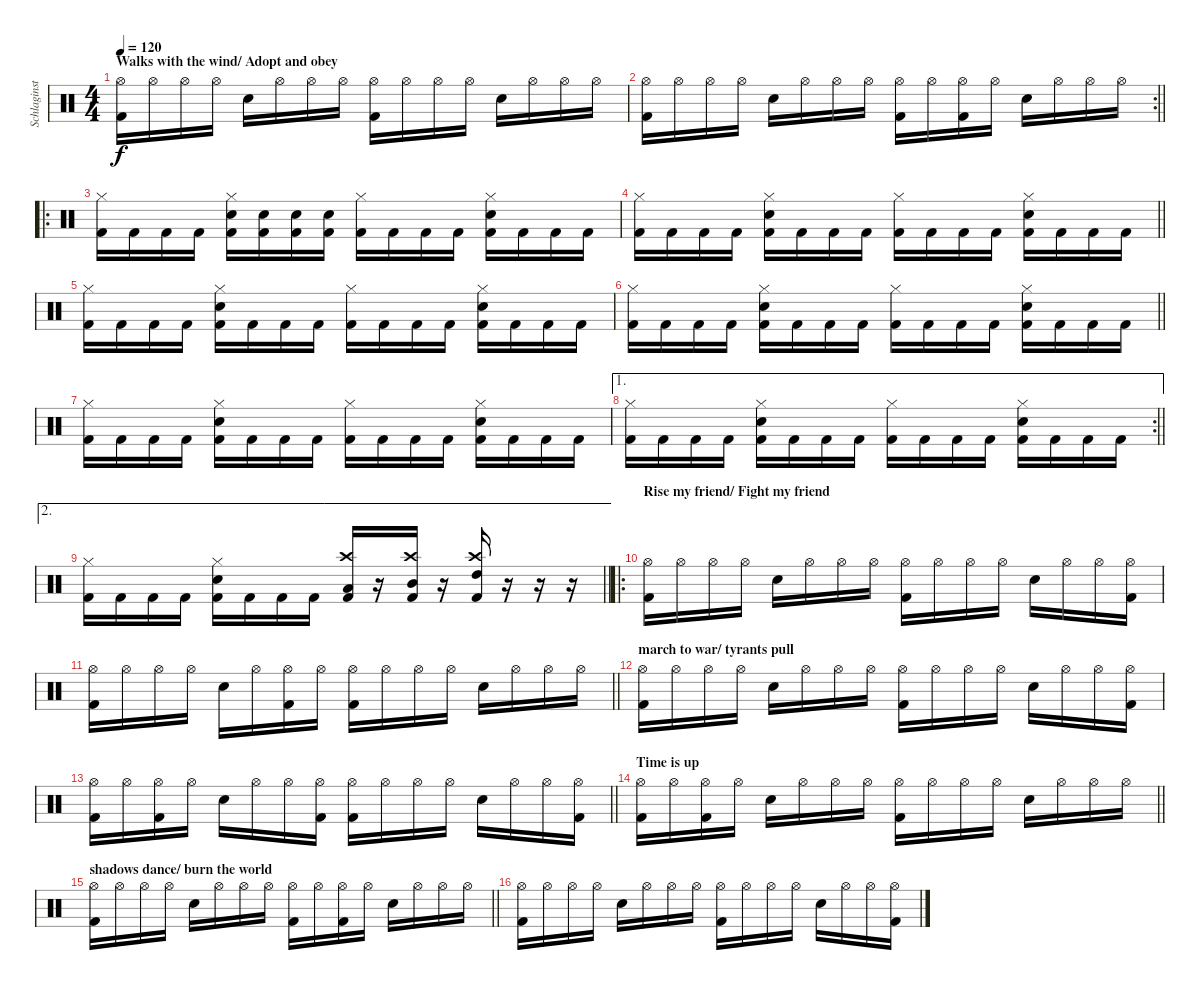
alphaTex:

\track ("Schlaginstrumente - Auswahl" "Schlaginst") {instrument percussion}
\staff {score}
\articulation defaults
\ts (4 4)
\section ("" "Walks with the wind/ Adopt and obey")
\tempo 120
\clef neutral
\ks c
("Hi-Hat (open)" "Kick (hit) 2").16{dy f} "Hi-Hat (open)".16 "Hi-Hat (open)".16 "Hi-Hat (open)".16 "Electric Snare (hit)".16 "Hi-Hat (open)".16 "Hi-Hat (open)".16 "Hi-Hat (open)".16 ("Hi-Hat (open)" "Kick (hit) 2").16 "Hi-Hat (open)".16 "Hi-Hat (open)".16 "Hi-Hat (open)".16 "Electric Snare (hit)".16 "Hi-Hat (open)".16 "Hi-Hat (open)".16 "Hi-Hat (open)".16 |
\rc 2
\barLineRight lightlight
("Hi-Hat (open)" "Kick (hit) 2").16 "Hi-Hat (open)".16 "Hi-Hat (open)".16 "Hi-Hat (open)".16 "Electric Snare (hit)".16 "Hi-Hat (open)".16 "Hi-Hat (open)".16 "Hi-Hat (open)".16 ("Hi-Hat (open)" "Kick (hit) 2").16 "Hi-Hat (open)".16 ("Hi-Hat (open)" "Kick (hit) 2").16 "Hi-Hat (open)".16 "Electric Snare (hit)".16 "Hi-Hat (open)".16 "Hi-Hat (open)".16 "Hi-Hat (open)".16 |
\ro
("Hi-Hat (closed)" "Kick (hit) 2").16 "Kick (hit) 2".16 "Kick (hit) 2".16 "Kick (hit) 2".16 ("Hi-Hat (closed)" "Electric Snare (hit)" "Kick (hit) 2").16 ("Electric Snare (hit)" "Kick (hit) 2").16 ("Electric Snare (hit)" "Kick (hit) 2").16 ("Electric Snare (hit)" "Kick (hit) 2").16 ("Hi-Hat (closed)" "Kick (hit) 2").16 "Kick (hit) 2".16 "Kick (hit) 2".16 "Kick (hit) 2".16 ("Hi-Hat (closed)" "Electric Snare (hit)" "Kick (hit) 2").16 "Kick (hit) 2".16 "Kick (hit) 2".16 "Kick (hit) 2".16 |
\barLineRight lightlight
("Hi-Hat (closed)" "Kick (hit) 2").16 "Kick (hit) 2".16 "Kick (hit) 2".16 "Kick (hit) 2".16 ("Hi-Hat (closed)" "Electric Snare (hit)" "Kick (hit) 2").16 "Kick (hit) 2".16 "Kick (hit) 2".16 "Kick (hit) 2".16 ("Hi-Hat (closed)" "Kick (hit) 2").16 "Kick (hit) 2".16 "Kick (hit) 2".16 "Kick (hit) 2".16 ("Hi-Hat (closed)" "Electric Snare (hit)" "Kick (hit) 2").16 "Kick (hit) 2".16 "Kick (hit) 2".16 "Kick (hit) 2".16 |
("Hi-Hat (closed)" "Kick (hit) 2").16 "Kick (hit) 2".16 "Kick (hit) 2".16 "Kick (hit) 2".16 ("Hi-Hat (closed)" "Electric Snare (hit)" "Kick (hit) 2").16 "Kick (hit) 2".16 "Kick (hit) 2".16 "Kick (hit) 2".16 ("Hi-Hat (closed)" "Kick (hit) 2").16 "Kick (hit) 2".16 "Kick (hit) 2".16 "Kick (hit) 2".16 ("Hi-Hat (closed)" "Electric Snare (hit)" "Kick (hit) 2").16 "Kick (hit) 2".16 "Kick (hit) 2".16 "Kick (hit) 2".16 |
\barLineRight lightlight
("Hi-Hat (closed)" "Kick (hit) 2").16 "Kick (hit) 2".16 "Kick (hit) 2".16 "Kick (hit) 2".16 ("Hi-Hat (closed)" "Electric Snare (hit)" "Kick (hit) 2").16 "Kick (hit) 2".16 "Kick (hit) 2".16 "Kick (hit) 2".16 ("Hi-Hat (closed)" "Kick (hit) 2").16 "Kick (hit) 2".16 "Kick (hit) 2".16 "Kick (hit) 2".16 ("Hi-Hat (closed)" "Electric Snare (hit)" "Kick (hit) 2").16 "Kick (hit) 2".16 "Kick (hit) 2".16 "Kick (hit) 2".16 |
("Hi-Hat (closed)" "Kick (hit) 2").16 "Kick (hit) 2".16 "Kick (hit) 2".16 "Kick (hit) 2".16 ("Hi-Hat (closed)" "Electric Snare (hit)" "Kick (hit) 2").16 "Kick (hit) 2".16 "Kick (hit) 2".16 "Kick (hit) 2".16 ("Hi-Hat (closed)" "Kick (hit) 2").16 "Kick (hit) 2".16 "Kick (hit) 2".16 "Kick (hit) 2".16 ("Hi-Hat (closed)" "Electric Snare (hit)" "Kick (hit) 2").16 "Kick (hit) 2".16 "Kick (hit) 2".16 "Kick (hit) 2".16 |
\ae 1
\rc 2
\barLineRight lightlight
("Hi-Hat (closed)" "Kick (hit) 2").16 "Kick (hit) 2".16 "Kick (hit) 2".16 "Kick (hit) 2".16 ("Hi-Hat (closed)" "Electric Snare (hit)" "Kick (hit) 2").16 "Kick (hit) 2".16 "Kick (hit) 2".16 "Kick (hit) 2".16 ("Hi-Hat (closed)" "Kick (hit) 2").16 "Kick (hit) 2".16 "Kick (hit) 2".16 "Kick (hit) 2".16 ("Hi-Hat (closed)" "Electric Snare (hit)" "Kick (hit) 2").16 "Kick (hit) 2".16 "Kick (hit) 2".16 "Kick (hit) 2".16 |
\ae 2
\barLineRight lightlight
("Hi-Hat (closed)" "Kick (hit) 2").16 "Kick (hit) 2".16 "Kick (hit) 2".16 "Kick (hit) 2".16 ("Hi-Hat (closed)" "Electric Snare (hit)" "Kick (hit) 2").16 "Kick (hit) 2".16 "Kick (hit) 2".16 "Kick (hit) 2".16 ("Crash high (hit)" "Low Tom (hit)" "Kick (hit) 2").16 r.16 ("Crash high (hit)" "Mid Tom (hit)" "Kick (hit) 2").16 r.16 ("Crash high (hit)" "High Tom (hit)" "Kick (hit) 2").16 r.16 r.16 r.16 |
\ro
\section ("" "Rise my friend/ Fight my friend")
("Hi-Hat (open)" "Kick (hit) 2").16 "Hi-Hat (open)".16 "Hi-Hat (open)".16 "Hi-Hat (open)".16 "Electric Snare (hit)".16 "Hi-Hat (open)".16 "Hi-Hat (open)".16 "Hi-Hat (open)".16 ("Hi-Hat (open)" "Kick (hit) 2").16 "Hi-Hat (open)".16 "Hi-Hat (open)".16 "Hi-Hat (open)".16 "Electric Snare (hit)".16 "Hi-Hat (open)".16 "Hi-Hat (open)".16 ("Hi-Hat (open)" "Kick (hit) 2").16 |
\barLineRight lightlight
("Hi-Hat (open)" "Kick (hit) 2").16 "Hi-Hat (open)".16 "Hi-Hat (open)".16 "Hi-Hat (open)".16 "Electric Snare (hit)".16 "Hi-Hat (open)".16 ("Hi-Hat (open)" "Kick (hit) 2").16 "Hi-Hat (open)".16 ("Hi-Hat (open)" "Kick (hit) 2").16 "Hi-Hat (open)".16 "Hi-Hat (open)".16 "Hi-Hat (open)".16 "Electric Snare (hit)".16 "Hi-Hat (open)".16 "Hi-Hat (open)".16 "Hi-Hat (open)".16 |
\section ("" "march to war/ tyrants pull")
("Hi-Hat (open)" "Kick (hit) 2").16 "Hi-Hat (open)".16 "Hi-Hat (open)".16 "Hi-Hat (open)".16 "Electric Snare (hit)".16 "Hi-Hat (open)".16 "Hi-Hat (open)".16 "Hi-Hat (open)".16 ("Hi-Hat (open)" "Kick (hit) 2").16 "Hi-Hat (open)".16 "Hi-Hat (open)".16 "Hi-Hat (open)".16 "Electric Snare (hit)".16 "Hi-Hat (open)".16 "Hi-Hat (open)".16 ("Hi-Hat (open)" "Kick (hit) 2").16 |
\barLineRight lightlight
("Hi-Hat (open)" "Kick (hit) 2").16 "Hi-Hat (open)".16 ("Hi-Hat (open)" "Kick (hit) 2").16 "Hi-Hat (open)".16 "Electric Snare (hit)".16 "Hi-Hat (open)".16 "Hi-Hat (open)".16 ("Hi-Hat (open)" "Kick (hit) 2").16 ("Hi-Hat (open)" "Kick (hit) 2").16 "Hi-Hat (open)".16 "Hi-Hat (open)".16 "Hi-Hat (open)".16 "Electric Snare (hit)".16 "Hi-Hat (open)".16 "Hi-Hat (open)".16 ("Hi-Hat (open)" "Kick (hit) 2").16 |
\section ("" "Time is up")
\barLineRight lightlight
("Hi-Hat (open)" "Kick (hit) 2").16 "Hi-Hat (open)".16 ("Hi-Hat (open)" "Kick (hit) 2").16 "Hi-Hat (open)".16 "Electric Snare (hit)".16 "Hi-Hat (open)".16 "Hi-Hat (open)".16 "Hi-Hat (open)".16 ("Hi-Hat (open)" "Kick (hit) 2").16 "Hi-Hat (open)".16 "Hi-Hat (open)".16 "Hi-Hat (open)".16 "Electric Snare (hit)".16 "Hi-Hat (open)".16 "Hi-Hat (open)".16 "Hi-Hat (open)".16 |
\section ("" "shadows dance/ burn the world")
\barLineRight lightlight
("Hi-Hat (open)" "Kick (hit) 2").16 "Hi-Hat (open)".16 "Hi-Hat (open)".16 "Hi-Hat (open)".16 "Electric Snare (hit)".16 "Hi-Hat (open)".16 "Hi-Hat (open)".16 "Hi-Hat (open)".16 ("Hi-Hat (open)" "Kick (hit) 2").16 "Hi-Hat (open)".16 ("Hi-Hat (open)" "Kick (hit) 2").16 "Hi-Hat (open)".16 "Electric Snare (hit)".16 "Hi-Hat (open)".16 "Hi-Hat (open)".16 "Hi-Hat (open)".16 |
\section ("" "")
("Hi-Hat (open)" "Kick (hit) 2").16 "Hi-Hat (open)".16 "Hi-Hat (open)".16 "Hi-Hat (open)".16 "Electric Snare (hit)".16 "Hi-Hat (open)".16 "Hi-Hat (open)".16 "Hi-Hat (open)".16 ("Hi-Hat (open)" "Kick (hit) 2").16 "Hi-Hat (open)".16 "Hi-Hat (open)".16 "Hi-Hat (open)".16 "Electric Snare (hit)".16 "Hi-Hat (open)".16 "Hi-Hat (open)".16 ("Hi-Hat (open)" "Kick (hit) 2").16
